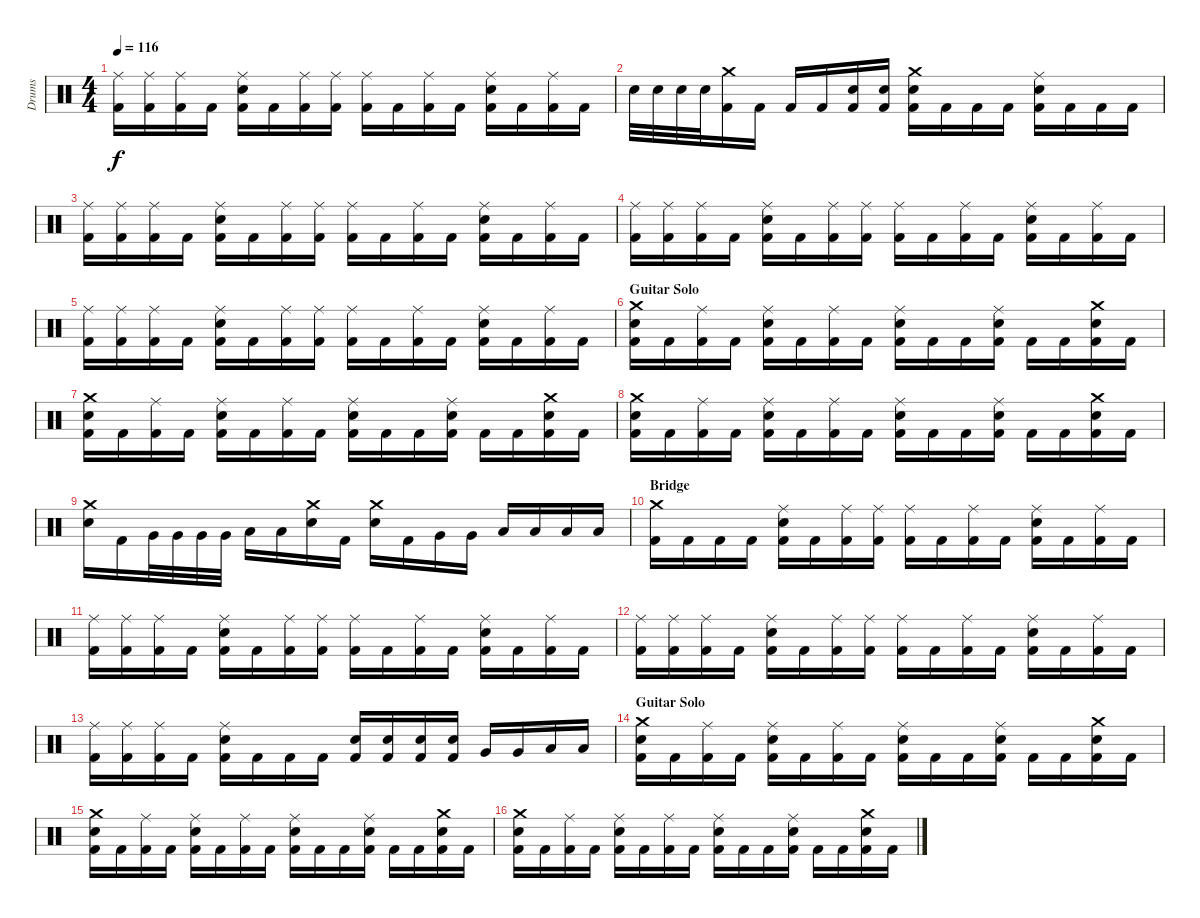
\track ("Drums" "Drums") {instrument percussion}
\staff {score}
\articulation defaults
\ts (4 4)
\tempo 116
\clef neutral
\ks c
("Ride (middle)" "Kick (hit) 2").16{dy f} ("Ride (middle)" "Kick (hit) 2").16 ("Ride (middle)" "Kick (hit) 2").16 "Kick (hit) 2".16 ("Ride (middle)" "Electric Snare (hit)" "Kick (hit) 2").16 "Kick (hit) 2".16 ("Ride (middle)" "Kick (hit) 2").16 ("Ride (middle)" "Kick (hit) 2").16 ("Ride (middle)" "Kick (hit) 2").16 "Kick (hit) 2".16 ("Ride (middle)" "Kick (hit) 2").16 "Kick (hit) 2".16 ("Ride (middle)" "Electric Snare (hit)" "Kick (hit) 2").16 "Kick (hit) 2".16 ("Ride (middle)" "Kick (hit) 2").16 "Kick (hit) 2".16 |
"Electric Snare (hit)".32 "Electric Snare (hit)".32 "Electric Snare (hit)".32 "Electric Snare (hit)".32 ("Crash medium (hit)" "Kick (hit) 2").16 "Kick (hit) 2".16 "Kick (hit) 2".16 "Kick (hit) 2".16 ("Electric Snare (hit)" "Kick (hit) 2").16 ("Electric Snare (hit)" "Kick (hit) 2").16 ("Crash medium (hit)" "Electric Snare (hit)" "Kick (hit) 2").16 "Kick (hit) 2".16 "Kick (hit) 2".16 "Kick (hit) 2".16 ("Ride (middle)" "Electric Snare (hit)" "Kick (hit) 2").16 "Kick (hit) 2".16 "Kick (hit) 2".16 "Kick (hit) 2".16 |
("Ride (middle)" "Kick (hit) 2").16 ("Ride (middle)" "Kick (hit) 2").16 ("Ride (middle)" "Kick (hit) 2").16 "Kick (hit) 2".16 ("Ride (middle)" "Electric Snare (hit)" "Kick (hit) 2").16 "Kick (hit) 2".16 ("Ride (middle)" "Kick (hit) 2").16 ("Ride (middle)" "Kick (hit) 2").16 ("Ride (middle)" "Kick (hit) 2").16 "Kick (hit) 2".16 ("Ride (middle)" "Kick (hit) 2").16 "Kick (hit) 2".16 ("Ride (middle)" "Electric Snare (hit)" "Kick (hit) 2").16 "Kick (hit) 2".16 ("Ride (middle)" "Kick (hit) 2").16 "Kick (hit) 2".16 |
("Ride (middle)" "Kick (hit) 2").16 ("Ride (middle)" "Kick (hit) 2").16 ("Ride (middle)" "Kick (hit) 2").16 "Kick (hit) 2".16 ("Ride (middle)" "Electric Snare (hit)" "Kick (hit) 2").16 "Kick (hit) 2".16 ("Ride (middle)" "Kick (hit) 2").16 ("Ride (middle)" "Kick (hit) 2").16 ("Ride (middle)" "Kick (hit) 2").16 "Kick (hit) 2".16 ("Ride (middle)" "Kick (hit) 2").16 "Kick (hit) 2".16 ("Ride (middle)" "Electric Snare (hit)" "Kick (hit) 2").16 "Kick (hit) 2".16 ("Ride (middle)" "Kick (hit) 2").16 "Kick (hit) 2".16 |
("Ride (middle)" "Kick (hit) 2").16 ("Ride (middle)" "Kick (hit) 2").16 ("Ride (middle)" "Kick (hit) 2").16 "Kick (hit) 2".16 ("Ride (middle)" "Electric Snare (hit)" "Kick (hit) 2").16 "Kick (hit) 2".16 ("Ride (middle)" "Kick (hit) 2").16 ("Ride (middle)" "Kick (hit) 2").16 ("Ride (middle)" "Kick (hit) 2").16 "Kick (hit) 2".16 ("Ride (middle)" "Kick (hit) 2").16 "Kick (hit) 2".16 ("Ride (middle)" "Electric Snare (hit)" "Kick (hit) 2").16 "Kick (hit) 2".16 ("Ride (middle)" "Kick (hit) 2").16 "Kick (hit) 2".16 |
\section ("" "Guitar Solo")
("Crash medium (hit)" "Electric Snare (hit)" "Kick (hit) 2").16 "Kick (hit) 2".16 ("Ride (middle)" "Kick (hit) 2").16 "Kick (hit) 2".16 ("Ride (middle)" "Electric Snare (hit)" "Kick (hit) 2").16 "Kick (hit) 2".16 ("Ride (middle)" "Kick (hit) 2").16 "Kick (hit) 2".16 ("Ride (middle)" "Electric Snare (hit)" "Kick (hit) 2").16 "Kick (hit) 2".16 "Kick (hit) 2".16 ("Ride (middle)" "Electric Snare (hit)" "Kick (hit) 2").16 "Kick (hit) 2".16 "Kick (hit) 2".16 ("Crash medium (hit)" "Electric Snare (hit)" "Kick (hit) 2").16 "Kick (hit) 2".16 |
("Crash medium (hit)" "Electric Snare (hit)" "Kick (hit) 2").16 "Kick (hit) 2".16 ("Ride (middle)" "Kick (hit) 2").16 "Kick (hit) 2".16 ("Ride (middle)" "Electric Snare (hit)" "Kick (hit) 2").16 "Kick (hit) 2".16 ("Ride (middle)" "Kick (hit) 2").16 "Kick (hit) 2".16 ("Ride (middle)" "Electric Snare (hit)" "Kick (hit) 2").16 "Kick (hit) 2".16 "Kick (hit) 2".16 ("Ride (middle)" "Electric Snare (hit)" "Kick (hit) 2").16 "Kick (hit) 2".16 "Kick (hit) 2".16 ("Crash medium (hit)" "Electric Snare (hit)" "Kick (hit) 2").16 "Kick (hit) 2".16 |
("Crash medium (hit)" "Electric Snare (hit)" "Kick (hit) 2").16 "Kick (hit) 2".16 ("Ride (middle)" "Kick (hit) 2").16 "Kick (hit) 2".16 ("Ride (middle)" "Electric Snare (hit)" "Kick (hit) 2").16 "Kick (hit) 2".16 ("Ride (middle)" "Kick (hit) 2").16 "Kick (hit) 2".16 ("Ride (middle)" "Electric Snare (hit)" "Kick (hit) 2").16 "Kick (hit) 2".16 "Kick (hit) 2".16 ("Ride (middle)" "Electric Snare (hit)" "Kick (hit) 2").16 "Kick (hit) 2".16 "Kick (hit) 2".16 ("Crash medium (hit)" "Electric Snare (hit)" "Kick (hit) 2").16 "Kick (hit) 2".16 |
("Crash medium (hit)" "Electric Snare (hit)").16 "Kick (hit) 2".16 "Very Low Tom (hit)".32 "Very Low Tom (hit)".32 "Very Low Tom (hit)".32 "Very Low Tom (hit)".32 "Low Floor Tom (hit)".16 "Low Floor Tom (hit)".16 ("Crash medium (hit)" "Electric Snare (hit)").16 "Kick (hit) 2".16 ("Crash medium (hit)" "Electric Snare (hit)").16 "Kick (hit) 2".16 "Very Low Tom (hit)".16 "Very Low Tom (hit)".16 "Low Floor Tom (hit)".16 "Low Floor Tom (hit)".16 "Low Floor Tom (hit)".16 "Low Floor Tom (hit)".16 |
\section ("" "Bridge")
("Crash medium (hit)" "Kick (hit) 2").16 "Kick (hit) 2".16 "Kick (hit) 2".16 "Kick (hit) 2".16 ("Ride (middle)" "Electric Snare (hit)" "Kick (hit) 2").16 "Kick (hit) 2".16 ("Ride (middle)" "Kick (hit) 2").16 ("Ride (middle)" "Kick (hit) 2").16 ("Ride (middle)" "Kick (hit) 2").16 "Kick (hit) 2".16 ("Ride (middle)" "Kick (hit) 2").16 "Kick (hit) 2".16 ("Ride (middle)" "Electric Snare (hit)" "Kick (hit) 2").16 "Kick (hit) 2".16 ("Ride (middle)" "Kick (hit) 2").16 "Kick (hit) 2".16 |
("Ride (middle)" "Kick (hit) 2").16 ("Ride (middle)" "Kick (hit) 2").16 ("Ride (middle)" "Kick (hit) 2").16 "Kick (hit) 2".16 ("Ride (middle)" "Electric Snare (hit)" "Kick (hit) 2").16 "Kick (hit) 2".16 ("Ride (middle)" "Kick (hit) 2").16 ("Ride (middle)" "Kick (hit) 2").16 ("Ride (middle)" "Kick (hit) 2").16 "Kick (hit) 2".16 ("Ride (middle)" "Kick (hit) 2").16 "Kick (hit) 2".16 ("Ride (middle)" "Electric Snare (hit)" "Kick (hit) 2").16 "Kick (hit) 2".16 ("Ride (middle)" "Kick (hit) 2").16 "Kick (hit) 2".16 |
("Ride (middle)" "Kick (hit) 2").16 ("Ride (middle)" "Kick (hit) 2").16 ("Ride (middle)" "Kick (hit) 2").16 "Kick (hit) 2".16 ("Ride (middle)" "Electric Snare (hit)" "Kick (hit) 2").16 "Kick (hit) 2".16 ("Ride (middle)" "Kick (hit) 2").16 ("Ride (middle)" "Kick (hit) 2").16 ("Ride (middle)" "Kick (hit) 2").16 "Kick (hit) 2".16 ("Ride (middle)" "Kick (hit) 2").16 "Kick (hit) 2".16 ("Ride (middle)" "Electric Snare (hit)" "Kick (hit) 2").16 "Kick (hit) 2".16 ("Ride (middle)" "Kick (hit) 2").16 "Kick (hit) 2".16 |
("Ride (middle)" "Kick (hit) 2").16 ("Ride (middle)" "Kick (hit) 2").16 ("Ride (middle)" "Kick (hit) 2").16 "Kick (hit) 2".16 ("Ride (middle)" "Electric Snare (hit)" "Kick (hit) 2").16 "Kick (hit) 2".16 "Kick (hit) 2".16 "Kick (hit) 2".16 ("Electric Snare (hit)" "Kick (hit) 2").16 ("Electric Snare (hit)" "Kick (hit) 2").16 ("Electric Snare (hit)" "Kick (hit) 2").16 ("Electric Snare (hit)" "Kick (hit) 2").16 "Very Low Tom (hit)".16 "Very Low Tom (hit)".16 "Low Floor Tom (hit)".16 "Low Floor Tom (hit)".16 |
\section ("" "Guitar Solo")
("Crash medium (hit)" "Electric Snare (hit)" "Kick (hit) 2").16 "Kick (hit) 2".16 ("Ride (middle)" "Kick (hit) 2").16 "Kick (hit) 2".16 ("Ride (middle)" "Electric Snare (hit)" "Kick (hit) 2").16 "Kick (hit) 2".16 ("Ride (middle)" "Kick (hit) 2").16 "Kick (hit) 2".16 ("Ride (middle)" "Electric Snare (hit)" "Kick (hit) 2").16 "Kick (hit) 2".16 "Kick (hit) 2".16 ("Ride (middle)" "Electric Snare (hit)" "Kick (hit) 2").16 "Kick (hit) 2".16 "Kick (hit) 2".16 ("Crash medium (hit)" "Electric Snare (hit)" "Kick (hit) 2").16 "Kick (hit) 2".16 |
("Crash medium (hit)" "Electric Snare (hit)" "Kick (hit) 2").16 "Kick (hit) 2".16 ("Ride (middle)" "Kick (hit) 2").16 "Kick (hit) 2".16 ("Ride (middle)" "Electric Snare (hit)" "Kick (hit) 2").16 "Kick (hit) 2".16 ("Ride (middle)" "Kick (hit) 2").16 "Kick (hit) 2".16 ("Ride (middle)" "Electric Snare (hit)" "Kick (hit) 2").16 "Kick (hit) 2".16 "Kick (hit) 2".16 ("Ride (middle)" "Electric Snare (hit)" "Kick (hit) 2").16 "Kick (hit) 2".16 "Kick (hit) 2".16 ("Crash medium (hit)" "Electric Snare (hit)" "Kick (hit) 2").16 "Kick (hit) 2".16 |
("Crash medium (hit)" "Electric Snare (hit)" "Kick (hit) 2").16 "Kick (hit) 2".16 ("Ride (middle)" "Kick (hit) 2").16 "Kick (hit) 2".16 ("Ride (middle)" "Electric Snare (hit)" "Kick (hit) 2").16 "Kick (hit) 2".16 ("Ride (middle)" "Kick (hit) 2").16 "Kick (hit) 2".16 ("Ride (middle)" "Electric Snare (hit)" "Kick (hit) 2").16 "Kick (hit) 2".16 "Kick (hit) 2".16 ("Ride (middle)" "Electric Snare (hit)" "Kick (hit) 2").16 "Kick (hit) 2".16 "Kick (hit) 2".16 ("Crash medium (hit)" "Electric Snare (hit)" "Kick (hit) 2").16 "Kick (hit) 2".16
